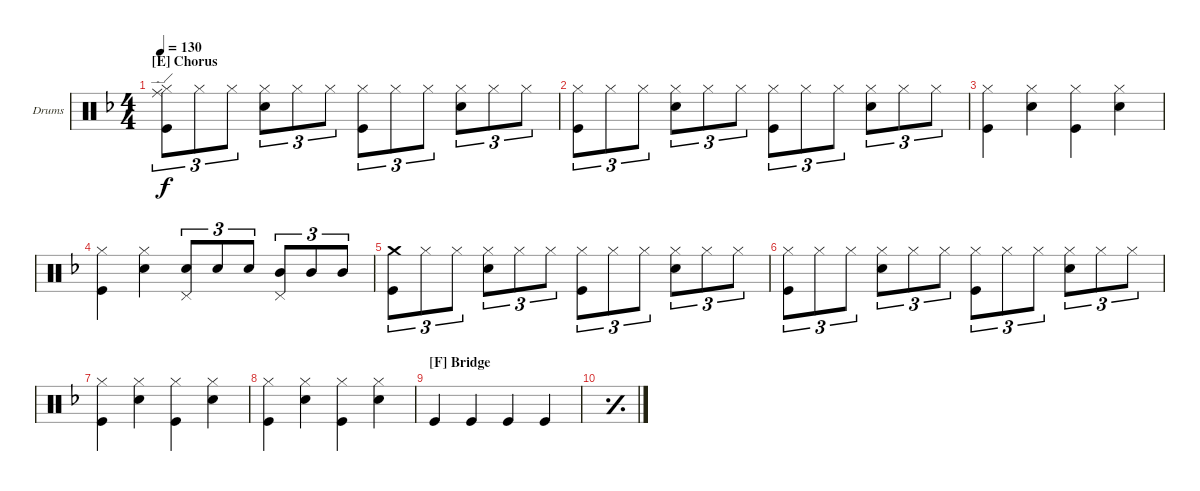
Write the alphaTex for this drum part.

\defaultSystemsLayout 4
\bracketExtendMode groupsimilarinstruments
\firstSystemTrackNameOrientation horizontal
\otherSystemsTrackNameOrientation horizontal
\track ("Matt Helders" "Drums") {instrument percussion}
\staff {score}
\articulation defaults
\ts (4 4)
\section ("E" "Chorus")
\tempo 130
\clef neutral
\ks f
("Kick (hit)" "Hi-Hat (closed)" "Ride (edge)").8{tu (3 2) dy f} "Hi-Hat (closed)".8{tu (3 2)} "Hi-Hat (closed)".8{tu (3 2)} ("Snare (hit) 2" "Hi-Hat (closed)").8{tu (3 2)} "Hi-Hat (closed)".8{tu (3 2)} "Hi-Hat (closed)".8{tu (3 2)} ("Kick (hit)" "Hi-Hat (closed)").8{tu (3 2)} "Hi-Hat (closed)".8{tu (3 2)} "Hi-Hat (closed)".8{tu (3 2)} ("Snare (hit) 2" "Hi-Hat (closed)").8{tu (3 2)} "Hi-Hat (closed)".8{tu (3 2)} "Hi-Hat (closed)".8{tu (3 2)} |
("Kick (hit)" "Hi-Hat (closed)").8{tu (3 2)} "Hi-Hat (closed)".8{tu (3 2)} "Hi-Hat (closed)".8{tu (3 2)} ("Snare (hit) 2" "Hi-Hat (closed)").8{tu (3 2)} "Hi-Hat (closed)".8{tu (3 2)} "Hi-Hat (closed)".8{tu (3 2)} ("Kick (hit)" "Hi-Hat (closed)").8{tu (3 2)} "Hi-Hat (closed)".8{tu (3 2)} "Hi-Hat (closed)".8{tu (3 2)} ("Snare (hit) 2" "Hi-Hat (closed)").8{tu (3 2)} "Hi-Hat (closed)".8{tu (3 2)} "Hi-Hat (closed)".8{tu (3 2)} |
("Kick (hit)" "Hi-Hat (closed)").4 ("Snare (hit) 2" "Hi-Hat (closed)").4 ("Kick (hit)" "Hi-Hat (closed)").4 ("Snare (hit) 2" "Hi-Hat (closed)").4 |
("Kick (hit)" "Hi-Hat (closed)").4 ("Snare (hit) 2" "Hi-Hat (closed)").4 ("Snare (hit) 2" "Pedal Hi-Hat (hit)").8{tu (3 2)} "Snare (hit) 2".8{tu (3 2)} "Snare (hit) 2".8{tu (3 2)} ("Mid Tom (hit)" "Pedal Hi-Hat (hit)").8{tu (3 2)} "Mid Tom (hit)".8{tu (3 2)} "Mid Tom (hit)".8{tu (3 2)} |
("Kick (hit)" "Crash medium (hit)").8{tu (3 2)} "Hi-Hat (closed)".8{tu (3 2)} "Hi-Hat (closed)".8{tu (3 2)} ("Snare (hit) 2" "Hi-Hat (closed)").8{tu (3 2)} "Hi-Hat (closed)".8{tu (3 2)} "Hi-Hat (closed)".8{tu (3 2)} ("Kick (hit)" "Hi-Hat (closed)").8{tu (3 2)} "Hi-Hat (closed)".8{tu (3 2)} "Hi-Hat (closed)".8{tu (3 2)} ("Snare (hit) 2" "Hi-Hat (closed)").8{tu (3 2)} "Hi-Hat (closed)".8{tu (3 2)} "Hi-Hat (closed)".8{tu (3 2)} |
("Kick (hit)" "Hi-Hat (closed)").8{tu (3 2)} "Hi-Hat (closed)".8{tu (3 2)} "Hi-Hat (closed)".8{tu (3 2)} ("Snare (hit) 2" "Hi-Hat (closed)").8{tu (3 2)} "Hi-Hat (closed)".8{tu (3 2)} "Hi-Hat (closed)".8{tu (3 2)} ("Kick (hit)" "Hi-Hat (closed)").8{tu (3 2)} "Hi-Hat (closed)".8{tu (3 2)} "Hi-Hat (closed)".8{tu (3 2)} ("Snare (hit) 2" "Hi-Hat (closed)").8{tu (3 2)} "Hi-Hat (closed)".8{tu (3 2)} "Hi-Hat (closed)".8{tu (3 2)} |
("Kick (hit)" "Hi-Hat (closed)").4 ("Snare (hit) 2" "Hi-Hat (closed)").4 ("Kick (hit)" "Hi-Hat (closed)").4 ("Snare (hit) 2" "Hi-Hat (closed)").4 |
("Kick (hit)" "Hi-Hat (closed)").4 ("Snare (hit) 2" "Hi-Hat (closed)").4 ("Kick (hit)" "Hi-Hat (closed)").4 ("Snare (hit) 2" "Hi-Hat (closed)").4 |
\section ("F" "Bridge")
"Kick (hit)".4 "Kick (hit)".4 "Kick (hit)".4 "Kick (hit)".4 |
\simile simple
